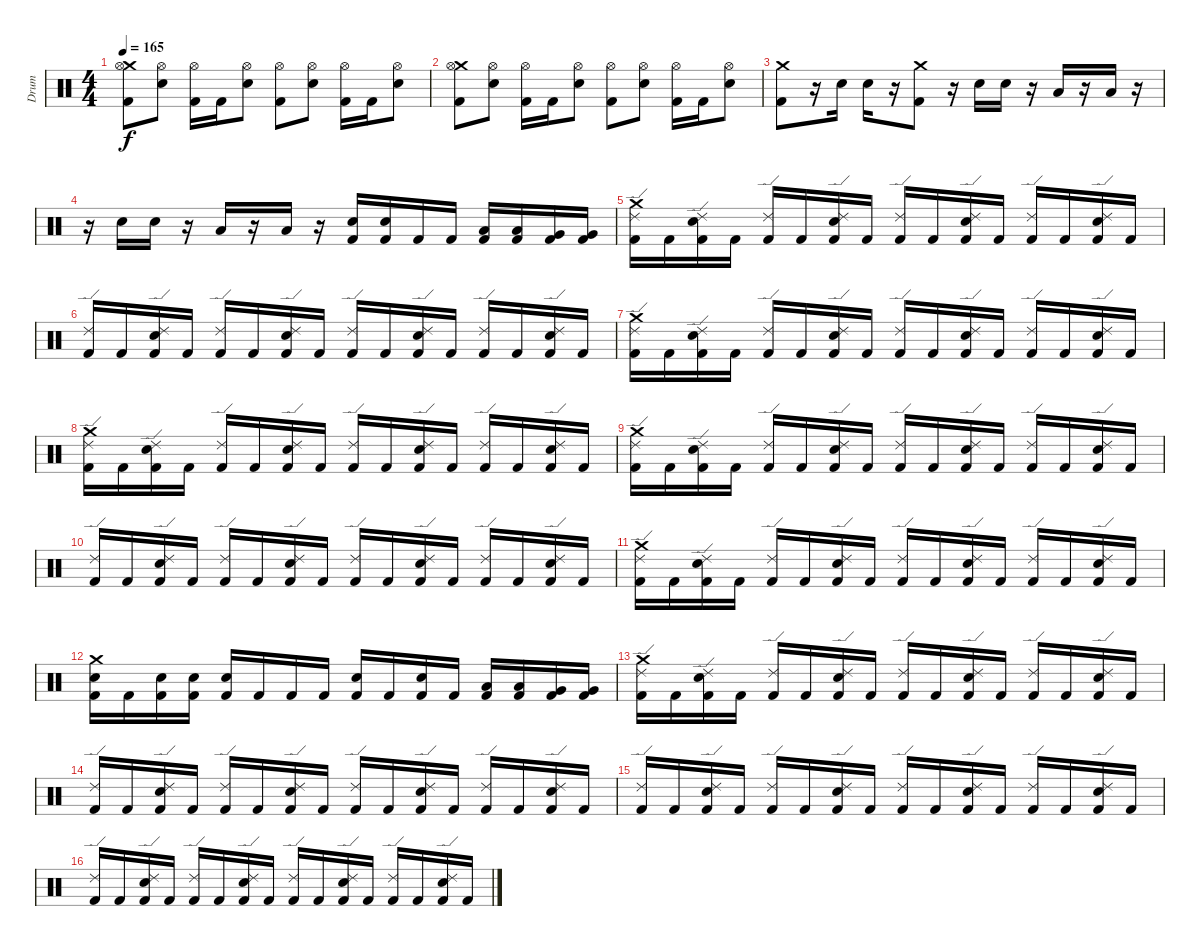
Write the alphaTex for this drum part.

\track ("Drum" "Drum") {instrument percussion}
\staff {score}
\articulation defaults
\ts (4 4)
\tempo 165
\clef neutral
\ks c
("Crash medium (hit)" "Hi-Hat (open)" "Kick (hit) 2").8{dy f} ("Hi-Hat (open)" "Electric Snare (hit)").8 ("Hi-Hat (open)" "Kick (hit) 2").16 "Kick (hit) 2".16 ("Hi-Hat (open)" "Electric Snare (hit)").8 ("Hi-Hat (open)" "Kick (hit) 2").8 ("Hi-Hat (open)" "Electric Snare (hit)").8 ("Hi-Hat (open)" "Kick (hit) 2").16 "Kick (hit) 2".16 ("Hi-Hat (open)" "Electric Snare (hit)").8 |
("Crash medium (hit)" "Hi-Hat (open)" "Kick (hit) 2").8 ("Hi-Hat (open)" "Electric Snare (hit)").8 ("Hi-Hat (open)" "Kick (hit) 2").16 "Kick (hit) 2".16 ("Hi-Hat (open)" "Electric Snare (hit)").8 ("Hi-Hat (open)" "Kick (hit) 2").8 ("Hi-Hat (open)" "Electric Snare (hit)").8 ("Hi-Hat (open)" "Kick (hit) 2").16 "Kick (hit) 2".16 ("Hi-Hat (open)" "Electric Snare (hit)").8 |
("Crash medium (hit)" "Kick (hit) 2").8 r.16 "Electric Snare (hit)".16 "Electric Snare (hit)".16 r.16 ("Crash medium (hit)" "Kick (hit) 2").8 r.16 "Electric Snare (hit)".16 "Electric Snare (hit)".16 r.16 "Low Tom (hit)".16 r.16 "Low Tom (hit)".16 r.16 |
r.16 "Electric Snare (hit)".16 "Electric Snare (hit)".16 r.16 "Low Tom (hit)".16 r.16 "Low Tom (hit)".16 r.16 ("Electric Snare (hit)" "Kick (hit) 2").16 ("Electric Snare (hit)" "Kick (hit) 2").16 "Kick (hit) 2".16 "Kick (hit) 2".16 ("Low Tom (hit)" "Kick (hit) 2").16 ("Low Tom (hit)" "Kick (hit) 2").16 ("Very Low Tom (hit)" "Kick (hit) 2").16 ("Very Low Tom (hit)" "Kick (hit) 2").16 |
("Crash medium (hit)" "Ride (edge) 2" "Kick (hit) 2").16 "Kick (hit) 2".16 ("Electric Snare (hit)" "Ride (edge) 2" "Kick (hit) 2").16 "Kick (hit) 2".16 ("Ride (edge) 2" "Kick (hit) 2").16 "Kick (hit) 2".16 ("Electric Snare (hit)" "Ride (edge) 2" "Kick (hit) 2").16 "Kick (hit) 2".16 ("Ride (edge) 2" "Kick (hit) 2").16 "Kick (hit) 2".16 ("Electric Snare (hit)" "Ride (edge) 2" "Kick (hit) 2").16 "Kick (hit) 2".16 ("Ride (edge) 2" "Kick (hit) 2").16 "Kick (hit) 2".16 ("Electric Snare (hit)" "Ride (edge) 2" "Kick (hit) 2").16 "Kick (hit) 2".16 |
("Ride (edge) 2" "Kick (hit) 2").16 "Kick (hit) 2".16 ("Electric Snare (hit)" "Ride (edge) 2" "Kick (hit) 2").16 "Kick (hit) 2".16 ("Ride (edge) 2" "Kick (hit) 2").16 "Kick (hit) 2".16 ("Electric Snare (hit)" "Ride (edge) 2" "Kick (hit) 2").16 "Kick (hit) 2".16 ("Ride (edge) 2" "Kick (hit) 2").16 "Kick (hit) 2".16 ("Electric Snare (hit)" "Ride (edge) 2" "Kick (hit) 2").16 "Kick (hit) 2".16 ("Ride (edge) 2" "Kick (hit) 2").16 "Kick (hit) 2".16 ("Electric Snare (hit)" "Ride (edge) 2" "Kick (hit) 2").16 "Kick (hit) 2".16 |
("Crash medium (hit)" "Ride (edge) 2" "Kick (hit) 2").16 "Kick (hit) 2".16 ("Electric Snare (hit)" "Ride (edge) 2" "Kick (hit) 2").16 "Kick (hit) 2".16 ("Ride (edge) 2" "Kick (hit) 2").16 "Kick (hit) 2".16 ("Electric Snare (hit)" "Ride (edge) 2" "Kick (hit) 2").16 "Kick (hit) 2".16 ("Ride (edge) 2" "Kick (hit) 2").16 "Kick (hit) 2".16 ("Electric Snare (hit)" "Ride (edge) 2" "Kick (hit) 2").16 "Kick (hit) 2".16 ("Ride (edge) 2" "Kick (hit) 2").16 "Kick (hit) 2".16 ("Electric Snare (hit)" "Ride (edge) 2" "Kick (hit) 2").16 "Kick (hit) 2".16 |
("Crash medium (hit)" "Ride (edge) 2" "Kick (hit) 2").16 "Kick (hit) 2".16 ("Electric Snare (hit)" "Ride (edge) 2" "Kick (hit) 2").16 "Kick (hit) 2".16 ("Ride (edge) 2" "Kick (hit) 2").16 "Kick (hit) 2".16 ("Electric Snare (hit)" "Ride (edge) 2" "Kick (hit) 2").16 "Kick (hit) 2".16 ("Ride (edge) 2" "Kick (hit) 2").16 "Kick (hit) 2".16 ("Electric Snare (hit)" "Ride (edge) 2" "Kick (hit) 2").16 "Kick (hit) 2".16 ("Ride (edge) 2" "Kick (hit) 2").16 "Kick (hit) 2".16 ("Electric Snare (hit)" "Ride (edge) 2" "Kick (hit) 2").16 "Kick (hit) 2".16 |
("Crash medium (hit)" "Ride (edge) 2" "Kick (hit) 2").16 "Kick (hit) 2".16 ("Electric Snare (hit)" "Ride (edge) 2" "Kick (hit) 2").16 "Kick (hit) 2".16 ("Ride (edge) 2" "Kick (hit) 2").16 "Kick (hit) 2".16 ("Electric Snare (hit)" "Ride (edge) 2" "Kick (hit) 2").16 "Kick (hit) 2".16 ("Ride (edge) 2" "Kick (hit) 2").16 "Kick (hit) 2".16 ("Electric Snare (hit)" "Ride (edge) 2" "Kick (hit) 2").16 "Kick (hit) 2".16 ("Ride (edge) 2" "Kick (hit) 2").16 "Kick (hit) 2".16 ("Electric Snare (hit)" "Ride (edge) 2" "Kick (hit) 2").16 "Kick (hit) 2".16 |
("Ride (edge) 2" "Kick (hit) 2").16 "Kick (hit) 2".16 ("Electric Snare (hit)" "Ride (edge) 2" "Kick (hit) 2").16 "Kick (hit) 2".16 ("Ride (edge) 2" "Kick (hit) 2").16 "Kick (hit) 2".16 ("Electric Snare (hit)" "Ride (edge) 2" "Kick (hit) 2").16 "Kick (hit) 2".16 ("Ride (edge) 2" "Kick (hit) 2").16 "Kick (hit) 2".16 ("Electric Snare (hit)" "Ride (edge) 2" "Kick (hit) 2").16 "Kick (hit) 2".16 ("Ride (edge) 2" "Kick (hit) 2").16 "Kick (hit) 2".16 ("Electric Snare (hit)" "Ride (edge) 2" "Kick (hit) 2").16 "Kick (hit) 2".16 |
("Crash medium (hit)" "Ride (edge) 2" "Kick (hit) 2").16 "Kick (hit) 2".16 ("Electric Snare (hit)" "Ride (edge) 2" "Kick (hit) 2").16 "Kick (hit) 2".16 ("Ride (edge) 2" "Kick (hit) 2").16 "Kick (hit) 2".16 ("Electric Snare (hit)" "Ride (edge) 2" "Kick (hit) 2").16 "Kick (hit) 2".16 ("Ride (edge) 2" "Kick (hit) 2").16 "Kick (hit) 2".16 ("Electric Snare (hit)" "Ride (edge) 2" "Kick (hit) 2").16 "Kick (hit) 2".16 ("Ride (edge) 2" "Kick (hit) 2").16 "Kick (hit) 2".16 ("Electric Snare (hit)" "Ride (edge) 2" "Kick (hit) 2").16 "Kick (hit) 2".16 |
("Crash medium (hit)" "Electric Snare (hit)" "Kick (hit) 2").16 "Kick (hit) 2".16 ("Electric Snare (hit)" "Kick (hit) 2").16 ("Electric Snare (hit)" "Kick (hit) 2").16 ("Electric Snare (hit)" "Kick (hit) 2").16 "Kick (hit) 2".16 "Kick (hit) 2".16 "Kick (hit) 2".16 ("Electric Snare (hit)" "Kick (hit) 2").16 "Kick (hit) 2".16 ("Electric Snare (hit)" "Kick (hit) 2").16 "Kick (hit) 2".16 ("Low Tom (hit)" "Kick (hit) 2").16 ("Low Tom (hit)" "Kick (hit) 2").16 ("Very Low Tom (hit)" "Kick (hit) 2").16 ("Very Low Tom (hit)" "Kick (hit) 2").16 |
("Crash medium (hit)" "Ride (edge) 2" "Kick (hit) 2").16 "Kick (hit) 2".16 ("Electric Snare (hit)" "Ride (edge) 2" "Kick (hit) 2").16 "Kick (hit) 2".16 ("Ride (edge) 2" "Kick (hit) 2").16 "Kick (hit) 2".16 ("Electric Snare (hit)" "Ride (edge) 2" "Kick (hit) 2").16 "Kick (hit) 2".16 ("Ride (edge) 2" "Kick (hit) 2").16 "Kick (hit) 2".16 ("Electric Snare (hit)" "Ride (edge) 2" "Kick (hit) 2").16 "Kick (hit) 2".16 ("Ride (edge) 2" "Kick (hit) 2").16 "Kick (hit) 2".16 ("Electric Snare (hit)" "Ride (edge) 2" "Kick (hit) 2").16 "Kick (hit) 2".16 |
("Ride (edge) 2" "Kick (hit) 2").16 "Kick (hit) 2".16 ("Electric Snare (hit)" "Ride (edge) 2" "Kick (hit) 2").16 "Kick (hit) 2".16 ("Ride (edge) 2" "Kick (hit) 2").16 "Kick (hit) 2".16 ("Electric Snare (hit)" "Ride (edge) 2" "Kick (hit) 2").16 "Kick (hit) 2".16 ("Ride (edge) 2" "Kick (hit) 2").16 "Kick (hit) 2".16 ("Electric Snare (hit)" "Ride (edge) 2" "Kick (hit) 2").16 "Kick (hit) 2".16 ("Ride (edge) 2" "Kick (hit) 2").16 "Kick (hit) 2".16 ("Electric Snare (hit)" "Ride (edge) 2" "Kick (hit) 2").16 "Kick (hit) 2".16 |
("Ride (edge) 2" "Kick (hit) 2").16 "Kick (hit) 2".16 ("Electric Snare (hit)" "Ride (edge) 2" "Kick (hit) 2").16 "Kick (hit) 2".16 ("Ride (edge) 2" "Kick (hit) 2").16 "Kick (hit) 2".16 ("Electric Snare (hit)" "Ride (edge) 2" "Kick (hit) 2").16 "Kick (hit) 2".16 ("Ride (edge) 2" "Kick (hit) 2").16 "Kick (hit) 2".16 ("Electric Snare (hit)" "Ride (edge) 2" "Kick (hit) 2").16 "Kick (hit) 2".16 ("Ride (edge) 2" "Kick (hit) 2").16 "Kick (hit) 2".16 ("Electric Snare (hit)" "Ride (edge) 2" "Kick (hit) 2").16 "Kick (hit) 2".16 |
("Ride (edge) 2" "Kick (hit) 2").16 "Kick (hit) 2".16 ("Electric Snare (hit)" "Ride (edge) 2" "Kick (hit) 2").16 "Kick (hit) 2".16 ("Ride (edge) 2" "Kick (hit) 2").16 "Kick (hit) 2".16 ("Electric Snare (hit)" "Ride (edge) 2" "Kick (hit) 2").16 "Kick (hit) 2".16 ("Ride (edge) 2" "Kick (hit) 2").16 "Kick (hit) 2".16 ("Electric Snare (hit)" "Ride (edge) 2" "Kick (hit) 2").16 "Kick (hit) 2".16 ("Ride (edge) 2" "Kick (hit) 2").16 "Kick (hit) 2".16 ("Electric Snare (hit)" "Ride (edge) 2" "Kick (hit) 2").16 "Kick (hit) 2".16
